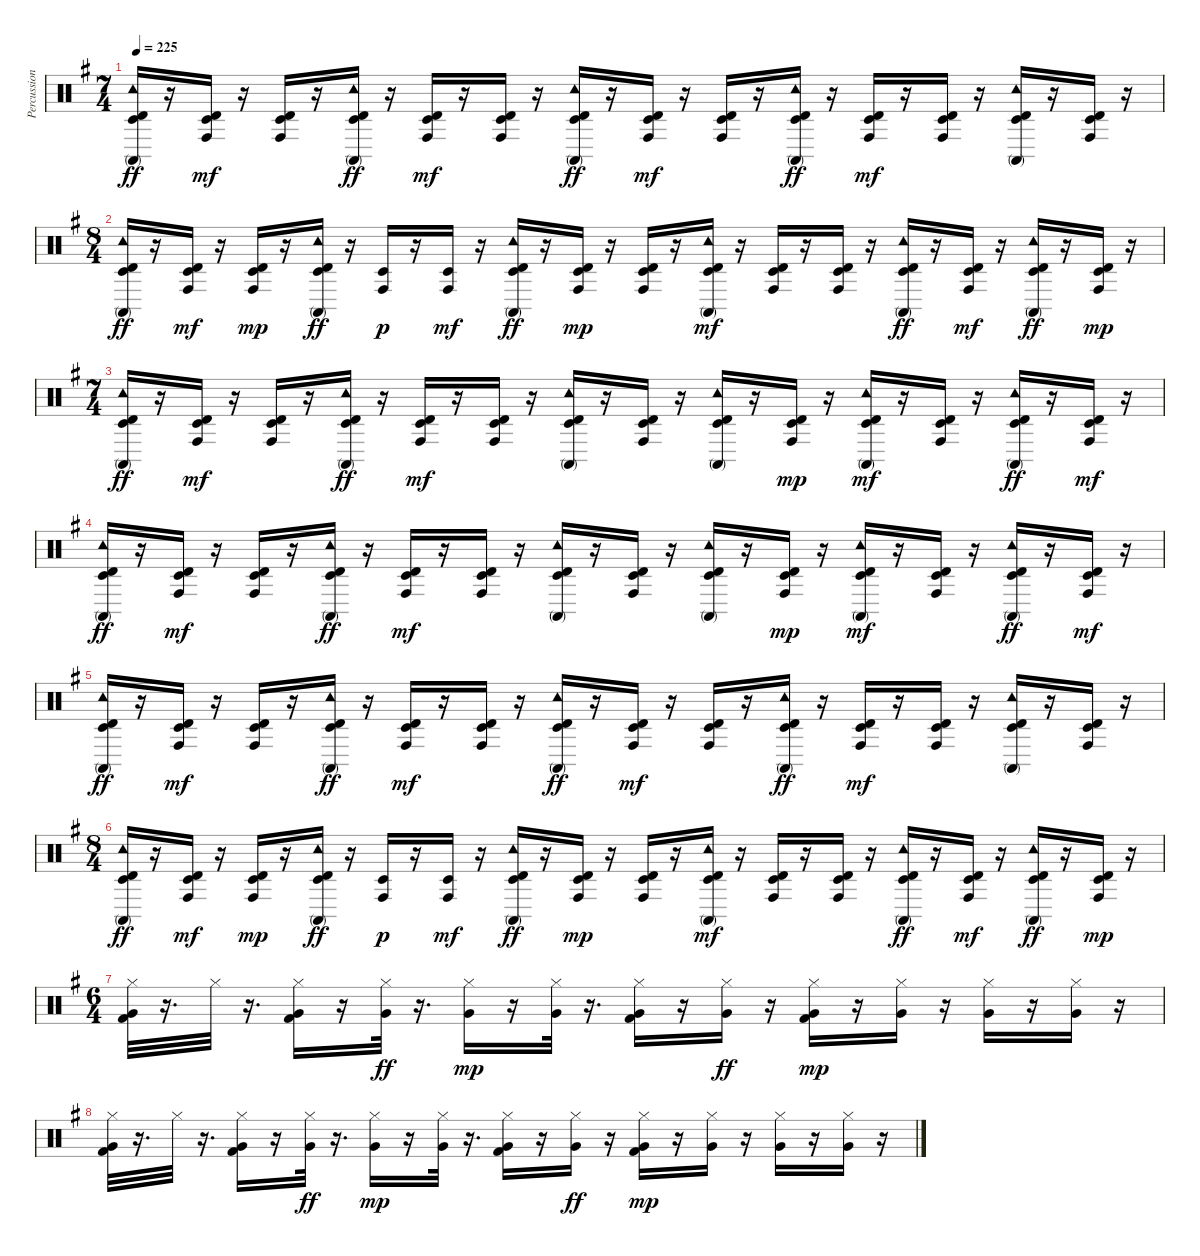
\track ("Percussion" "Percussion") {instrument percussion}
\staff {score}
\articulation defaults
\ts (7 4)
\tempo 225
\clef neutral
\ks g
("Timbale high (hit)" "Timbale low (hit)" "Tambourine (hit)" "Conga high (mute)").16{dy ff} r.16 ("Timbale low (hit)" "Timbale high (hit)" "Conga high (hit)").16{dy mf} r.16 ("Timbale high (hit)" "Conga high (hit)" "Timbale low (hit)").16 r.16 ("Tambourine (hit)" "Timbale high (hit)" "Timbale low (hit)" "Conga high (mute)").16{dy ff} r.16 ("Timbale low (hit)" "Conga high (hit)" "Timbale high (hit)").16{dy mf} r.16 ("Timbale low (hit)" "Timbale high (hit)" "Conga high (hit)").16 r.16 ("Tambourine (hit)" "Timbale high (hit)" "Timbale low (hit)" "Conga high (mute)").16{dy ff} r.16 ("Timbale low (hit)" "Conga high (hit)" "Timbale high (hit)").16{dy mf} r.16 ("Timbale low (hit)" "Timbale high (hit)" "Conga high (hit)").16 r.16 ("Tambourine (hit)" "Timbale high (hit)" "Timbale low (hit)" "Conga high (mute)").16{dy ff} r.16 ("Timbale low (hit)" "Conga high (hit)" "Timbale high (hit)").16{dy mf} r.16 ("Timbale low (hit)" "Timbale high (hit)" "Conga high (hit)").16 r.16 ("Tambourine (hit)" "Conga high (mute)" "Timbale high (hit)" "Timbale low (hit)").16 r.16 ("Conga high (hit)" "Timbale low (hit)" "Timbale high (hit)").16 r.16 |
\ts (8 4)
("Timbale low (hit)" "Timbale high (hit)" "Conga high (mute)" "Tambourine (hit)").16{dy ff} r.16 ("Timbale low (hit)" "Timbale high (hit)" "Conga high (hit)").16{dy mf} r.16 ("Timbale high (hit)" "Conga high (hit)" "Timbale low (hit)").16{dy mp} r.16 ("Timbale low (hit)" "Timbale high (hit)" "Tambourine (hit)" "Conga high (mute)").16{dy ff} r.16 ("Conga high (hit)" "Timbale low (hit)").16{dy p} r.16 ("Timbale low (hit)" "Conga high (hit)").16{dy mf} r.16 ("Tambourine (hit)" "Timbale high (hit)" "Timbale low (hit)" "Conga high (mute)").16{dy ff} r.16 ("Timbale high (hit)" "Conga high (hit)" "Timbale low (hit)").16{dy mp} r.16 ("Timbale high (hit)" "Conga high (hit)" "Timbale low (hit)").16 r.16 ("Timbale high (hit)" "Conga high (mute)" "Tambourine (hit)" "Timbale low (hit)").16{dy mf} r.16 ("Timbale high (hit)" "Timbale low (hit)" "Conga high (hit)").16 r.16 ("Timbale high (hit)" "Timbale low (hit)" "Conga high (hit)").16 r.16 ("Timbale low (hit)" "Timbale high (hit)" "Tambourine (hit)" "Conga high (mute)").16{dy ff} r.16 ("Timbale high (hit)" "Timbale low (hit)" "Conga high (hit)").16{dy mf} r.16 ("Timbale low (hit)" "Timbale high (hit)" "Tambourine (hit)" "Conga high (mute)").16{dy ff} r.16 ("Timbale high (hit)" "Conga high (hit)" "Timbale low (hit)").16{dy mp} r.16 |
\ts (7 4)
("Timbale high (hit)" "Timbale low (hit)" "Tambourine (hit)" "Conga high (mute)").16{dy ff} r.16 ("Timbale low (hit)" "Timbale high (hit)" "Conga high (hit)").16{dy mf} r.16 ("Timbale high (hit)" "Conga high (hit)" "Timbale low (hit)").16 r.16 ("Tambourine (hit)" "Timbale high (hit)" "Timbale low (hit)" "Conga high (mute)").16{dy ff} r.16 ("Timbale low (hit)" "Conga high (hit)" "Timbale high (hit)").16{dy mf} r.16 ("Timbale low (hit)" "Timbale high (hit)" "Conga high (hit)").16 r.16 ("Tambourine (hit)" "Conga high (mute)" "Timbale high (hit)" "Timbale low (hit)").16 r.16 ("Conga high (hit)" "Timbale low (hit)" "Timbale high (hit)").16 r.16 ("Tambourine (hit)" "Timbale high (hit)" "Conga high (mute)" "Timbale low (hit)").16 r.16 ("Conga high (hit)" "Timbale high (hit)" "Timbale low (hit)").16{dy mp} r.16 ("Tambourine (hit)" "Conga high (mute)" "Timbale high (hit)" "Timbale low (hit)").16{dy mf} r.16 ("Timbale low (hit)" "Conga high (hit)" "Timbale high (hit)").16 r.16 ("Tambourine (hit)" "Conga high (mute)" "Timbale high (hit)" "Timbale low (hit)").16{dy ff} r.16 ("Conga high (hit)" "Timbale high (hit)" "Timbale low (hit)").16{dy mf} r.16 |
("Timbale high (hit)" "Timbale low (hit)" "Tambourine (hit)" "Conga high (mute)").16{dy ff} r.16 ("Timbale low (hit)" "Timbale high (hit)" "Conga high (hit)").16{dy mf} r.16 ("Timbale high (hit)" "Conga high (hit)" "Timbale low (hit)").16 r.16 ("Tambourine (hit)" "Timbale high (hit)" "Timbale low (hit)" "Conga high (mute)").16{dy ff} r.16 ("Timbale low (hit)" "Conga high (hit)" "Timbale high (hit)").16{dy mf} r.16 ("Timbale low (hit)" "Timbale high (hit)" "Conga high (hit)").16 r.16 ("Tambourine (hit)" "Conga high (mute)" "Timbale high (hit)" "Timbale low (hit)").16 r.16 ("Conga high (hit)" "Timbale low (hit)" "Timbale high (hit)").16 r.16 ("Tambourine (hit)" "Timbale high (hit)" "Conga high (mute)" "Timbale low (hit)").16 r.16 ("Conga high (hit)" "Timbale high (hit)" "Timbale low (hit)").16{dy mp} r.16 ("Tambourine (hit)" "Conga high (mute)" "Timbale high (hit)" "Timbale low (hit)").16{dy mf} r.16 ("Timbale low (hit)" "Conga high (hit)" "Timbale high (hit)").16 r.16 ("Tambourine (hit)" "Conga high (mute)" "Timbale high (hit)" "Timbale low (hit)").16{dy ff} r.16 ("Conga high (hit)" "Timbale high (hit)" "Timbale low (hit)").16{dy mf} r.16 |
("Timbale high (hit)" "Timbale low (hit)" "Tambourine (hit)" "Conga high (mute)").16{dy ff} r.16 ("Timbale low (hit)" "Timbale high (hit)" "Conga high (hit)").16{dy mf} r.16 ("Timbale high (hit)" "Conga high (hit)" "Timbale low (hit)").16 r.16 ("Tambourine (hit)" "Timbale high (hit)" "Timbale low (hit)" "Conga high (mute)").16{dy ff} r.16 ("Timbale low (hit)" "Conga high (hit)" "Timbale high (hit)").16{dy mf} r.16 ("Timbale low (hit)" "Timbale high (hit)" "Conga high (hit)").16 r.16 ("Tambourine (hit)" "Timbale high (hit)" "Timbale low (hit)" "Conga high (mute)").16{dy ff} r.16 ("Timbale low (hit)" "Conga high (hit)" "Timbale high (hit)").16{dy mf} r.16 ("Timbale low (hit)" "Timbale high (hit)" "Conga high (hit)").16 r.16 ("Tambourine (hit)" "Timbale high (hit)" "Timbale low (hit)" "Conga high (mute)").16{dy ff} r.16 ("Timbale low (hit)" "Conga high (hit)" "Timbale high (hit)").16{dy mf} r.16 ("Timbale low (hit)" "Timbale high (hit)" "Conga high (hit)").16 r.16 ("Tambourine (hit)" "Conga high (mute)" "Timbale high (hit)" "Timbale low (hit)").16 r.16 ("Conga high (hit)" "Timbale low (hit)" "Timbale high (hit)").16 r.16 |
\ts (8 4)
("Timbale low (hit)" "Timbale high (hit)" "Conga high (mute)" "Tambourine (hit)").16{dy ff} r.16 ("Timbale low (hit)" "Timbale high (hit)" "Conga high (hit)").16{dy mf} r.16 ("Timbale high (hit)" "Conga high (hit)" "Timbale low (hit)").16{dy mp} r.16 ("Timbale low (hit)" "Timbale high (hit)" "Tambourine (hit)" "Conga high (mute)").16{dy ff} r.16 ("Conga high (hit)" "Timbale low (hit)").16{dy p} r.16 ("Timbale low (hit)" "Conga high (hit)").16{dy mf} r.16 ("Tambourine (hit)" "Timbale high (hit)" "Timbale low (hit)" "Conga high (mute)").16{dy ff} r.16 ("Timbale high (hit)" "Conga high (hit)" "Timbale low (hit)").16{dy mp} r.16 ("Timbale high (hit)" "Conga high (hit)" "Timbale low (hit)").16 r.16 ("Timbale high (hit)" "Conga high (mute)" "Tambourine (hit)" "Timbale low (hit)").16{dy mf} r.16 ("Timbale high (hit)" "Timbale low (hit)" "Conga high (hit)").16 r.16 ("Timbale high (hit)" "Timbale low (hit)" "Conga high (hit)").16 r.16 ("Timbale low (hit)" "Timbale high (hit)" "Tambourine (hit)" "Conga high (mute)").16{dy ff} r.16 ("Timbale high (hit)" "Timbale low (hit)" "Conga high (hit)").16{dy mf} r.16 ("Timbale low (hit)" "Timbale high (hit)" "Tambourine (hit)" "Conga high (mute)").16{dy ff} r.16 ("Timbale high (hit)" "Conga high (hit)" "Timbale low (hit)").16{dy mp} r.16 |
\ts (6 4)
("Hi-Hat (closed)" "Very Low Tom (hit)" "Kick (hit) 2").32{volume 14} r.16{d} "Hi-Hat (closed)".32 r.16{d} ("Hi-Hat (closed)" "Very Low Tom (hit)" "Kick (hit) 2").16 r.16 ("Hi-Hat (closed)" "Very Low Tom (hit)").32{dy ff} r.16{d} ("Hi-Hat (closed)" "Very Low Tom (hit)").16{dy mp} r.16 ("Hi-Hat (closed)" "Very Low Tom (hit)").32 r.16{d} ("Hi-Hat (closed)" "Very Low Tom (hit)" "Kick (hit) 2").16 r.16 ("Hi-Hat (closed)" "Very Low Tom (hit)").16{dy ff} r.16 ("Hi-Hat (closed)" "Very Low Tom (hit)" "Kick (hit) 2").16{dy mp} r.16 ("Hi-Hat (closed)" "Very Low Tom (hit)").16 r.16 ("Hi-Hat (closed)" "Very Low Tom (hit)").16 r.16 ("Hi-Hat (closed)" "Very Low Tom (hit)").16 r.16 |
("Hi-Hat (closed)" "Very Low Tom (hit)" "Kick (hit) 2").32 r.16{d} "Hi-Hat (closed)".32 r.16{d} ("Hi-Hat (closed)" "Very Low Tom (hit)" "Kick (hit) 2").16 r.16 ("Hi-Hat (closed)" "Very Low Tom (hit)").32{dy ff} r.16{d} ("Hi-Hat (closed)" "Very Low Tom (hit)").16{dy mp} r.16 ("Hi-Hat (closed)" "Very Low Tom (hit)").32 r.16{d} ("Hi-Hat (closed)" "Very Low Tom (hit)" "Kick (hit) 2").16 r.16 ("Hi-Hat (closed)" "Very Low Tom (hit)").16{dy ff} r.16 ("Hi-Hat (closed)" "Very Low Tom (hit)" "Kick (hit) 2").16{dy mp} r.16 ("Hi-Hat (closed)" "Very Low Tom (hit)").16 r.16 ("Hi-Hat (closed)" "Very Low Tom (hit)").16 r.16 ("Hi-Hat (closed)" "Very Low Tom (hit)").16 r.16
